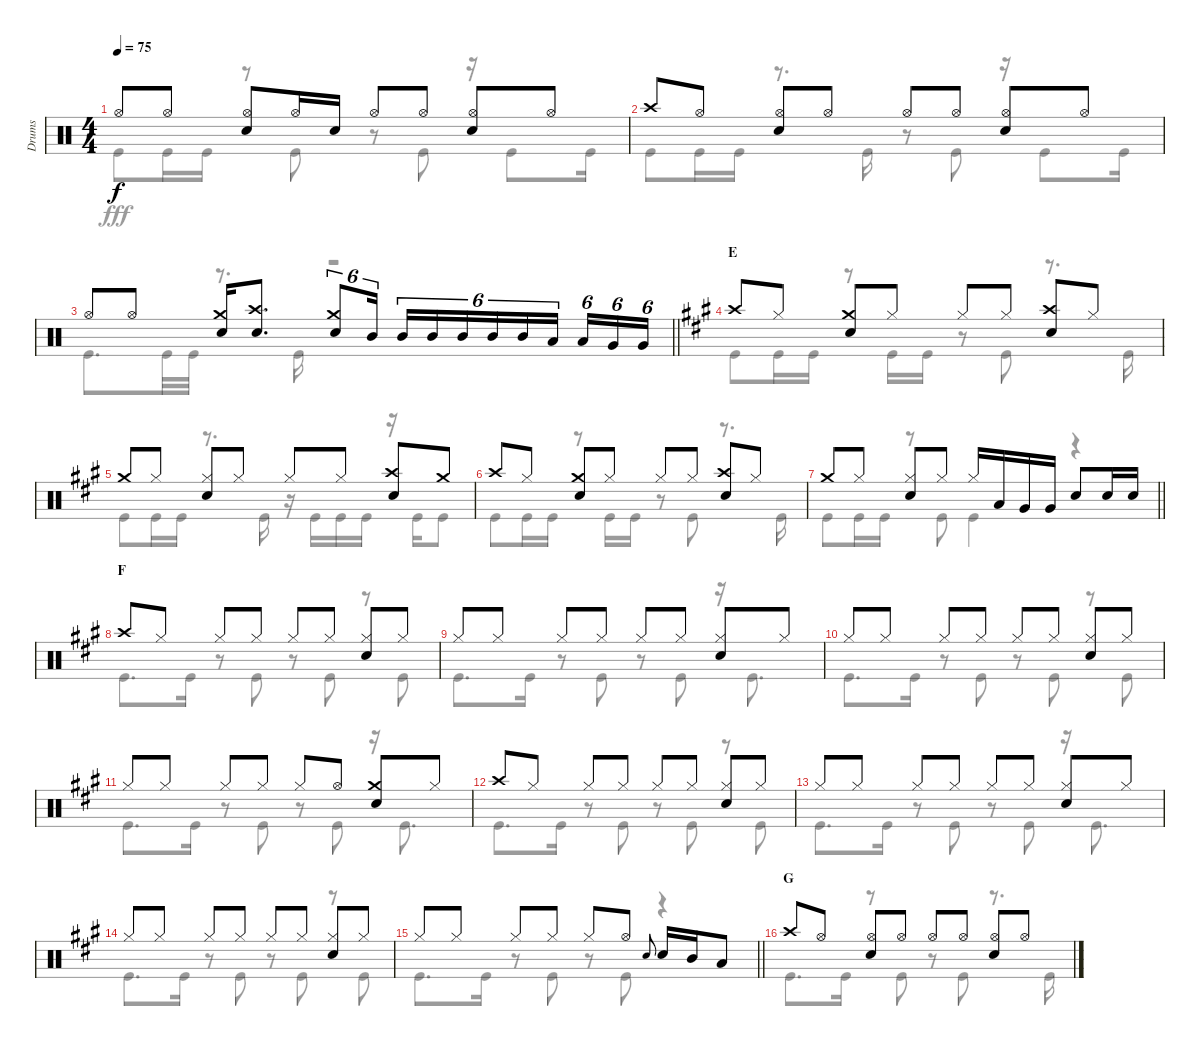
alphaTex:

\track ("Drums" "Drums") {instrument percussion}
\staff {score}
\articulation defaults
\voice
\ts (4 4)
\tempo 75
\clef neutral
\ks c "Hi-Hat (open)".8{dy f} "Hi-Hat (open)".8
("Hi-Hat (open)" "Snare (hit) 2").8 "Hi-Hat (open)".16 "Snare (hit) 2".16 "Hi-Hat (open)".8 "Hi-Hat (open)".8 ("Hi-Hat (open)" "Snare (hit) 2").8 "Hi-Hat (open)".8 |
"Crash high (hit)".8 "Hi-Hat (open)".8 ("Hi-Hat (open)" "Snare (hit) 2").8 "Hi-Hat (open)".8 "Hi-Hat (open)".8 "Hi-Hat (open)".8 ("Hi-Hat (open)" "Snare (hit) 2").8 "Hi-Hat (open)".8 |
\barLineRight lightlight "Hi-Hat (open)".8 "Hi-Hat (open)".8
("Crash medium (hit)" "Snare (hit) 2").16 ("Crash high (hit)" "Snare (hit) 2").8{d} ("Crash medium (hit)" "Snare (hit) 2").8{tu (6 4)} "Mid Tom (hit)".16{tu (6 4) beam splitsecondary} "Mid Tom (hit)".16{tu (6 4)} "Mid Tom (hit)".16{tu (6 4)} "Mid Tom (hit)".16{tu (6 4)} "Mid Tom (hit)".16{tu (6 4)} "Mid Tom (hit)".16{tu (6 4)} "Low Tom (hit)".16{tu (6 4) beam splitsecondary} "Low Tom (hit)".16{tu (6 4)} "Very Low Tom (hit)".16{tu (6 4)} "Very Low Tom (hit)".16{tu (6 4)} |
\section ("" "E")
\ks a "Crash high (hit)".8 "Hi-Hat (closed)".8
("Crash medium (hit)" "Snare (hit) 2").8 "Hi-Hat (closed)".8 "Hi-Hat (closed)".8 "Hi-Hat (closed)".8 ("Crash high (hit)" "Snare (hit) 2").8 "Hi-Hat (closed)".8 |
"Crash medium (hit)".8 "Hi-Hat (closed)".8 ("Hi-Hat (closed)" "Snare (hit) 2").8 "Hi-Hat (closed)".8 "Hi-Hat (closed)".8 "Hi-Hat (closed)".8 ("Crash high (hit)" "Snare (hit) 2").8 "Crash medium (hit)".8 |
"Crash high (hit)".8 "Hi-Hat (closed)".8 ("Crash medium (hit)" "Snare (hit) 2").8 "Hi-Hat (closed)".8 "Hi-Hat (closed)".8 "Hi-Hat (closed)".8 ("Crash high (hit)" "Snare (hit) 2").8 "Hi-Hat (closed)".8 |
\barLineRight lightlight "Crash medium (hit)".8 "Hi-Hat (closed)".8
("Hi-Hat (closed)" "Snare (hit) 2").8 "Hi-Hat (closed)".8 "Hi-Hat (closed)".16 "Low Tom (hit)".16 "Very Low Tom (hit)".16 "Very Low Tom (hit)".16 "Snare (hit) 2".8 "Snare (hit) 2".16 "Snare (hit) 2".16 |
\section ("" "F")
"Crash high (hit)".8 "Hi-Hat (closed)".8 "Hi-Hat (closed)".8 "Hi-Hat (closed)".8 "Hi-Hat (closed)".8 "Hi-Hat (closed)".8 ("Hi-Hat (closed)" "Snare (hit) 2").8 "Hi-Hat (closed)".8 |
"Hi-Hat (closed)".8 "Hi-Hat (closed)".8 "Hi-Hat (closed)".8 "Hi-Hat (closed)".8 "Hi-Hat (closed)".8 "Hi-Hat (closed)".8 ("Hi-Hat (closed)" "Snare (hit) 2").8 "Hi-Hat (closed)".8 |
"Hi-Hat (closed)".8 "Hi-Hat (closed)".8 "Hi-Hat (closed)".8 "Hi-Hat (closed)".8 "Hi-Hat (closed)".8 "Hi-Hat (closed)".8 ("Hi-Hat (closed)" "Snare (hit) 2").8 "Hi-Hat (closed)".8 |
"Hi-Hat (closed)".8 "Hi-Hat (closed)".8 "Hi-Hat (closed)".8 "Hi-Hat (closed)".8 "Hi-Hat (closed)".8 "Hi-Hat (open)".8 ("Crash medium (hit)" "Snare (hit) 2").8 "Hi-Hat (closed)".8 |
"Crash high (hit)".8 "Hi-Hat (closed)".8 "Hi-Hat (closed)".8 "Hi-Hat (closed)".8 "Hi-Hat (closed)".8 "Hi-Hat (closed)".8 ("Hi-Hat (closed)" "Snare (hit) 2").8 "Hi-Hat (closed)".8 |
"Hi-Hat (closed)".8 "Hi-Hat (closed)".8 "Hi-Hat (closed)".8 "Hi-Hat (closed)".8 "Hi-Hat (closed)".8 "Hi-Hat (closed)".8 ("Hi-Hat (closed)" "Snare (hit) 2").8 "Hi-Hat (closed)".8 |
"Hi-Hat (closed)".8 "Hi-Hat (closed)".8 "Hi-Hat (closed)".8 "Hi-Hat (closed)".8 "Hi-Hat (closed)".8 "Hi-Hat (closed)".8 ("Hi-Hat (closed)" "Snare (hit) 2").8 "Hi-Hat (closed)".8 |
\barLineRight lightlight "Hi-Hat (closed)".8 "Hi-Hat (closed)".8 "Hi-Hat (closed)".8 "Hi-Hat (closed)".8 "Hi-Hat (closed)".8 "Hi-Hat (open)".8 "Snare (hit) 2".8{gr onbeat} "Snare (hit) 2".16 "Mid Tom (hit)".16 "Low Tom (hit)".8
|
\section ("" "G")
"Crash high (hit)".8 "Hi-Hat (open)".8 ("Hi-Hat (open)" "Snare (hit) 2").8 "Hi-Hat (open)".8 "Hi-Hat (open)".8 "Hi-Hat (open)".8 ("Hi-Hat (open)" "Snare (hit) 2").8 "Hi-Hat (open)".8
\voice
\clef neutral
\ottava regular
\simile none
\ks c "Kick (hit)".8{dy fff} "Kick (hit)".16 "Kick (hit)".16
r.8 "Kick (hit)".8 r.8 "Kick (hit)".8 r.16 "Kick (hit)".8 "Kick (hit)".16 |
"Kick (hit)".8 "Kick (hit)".16 "Kick (hit)".16 r.8{d} "Kick (hit)".16 r.8 "Kick (hit)".8 r.16 "Kick (hit)".8 "Kick (hit)".16 |
\barLineRight lightlight "Kick (hit)".8{d} "Kick (hit)".32 "Kick (hit)".32
r.8{d} "Kick (hit)".16 r.2 |
\ks a "Kick (hit)".8 "Kick (hit)".16 "Kick (hit)".16
r.8 "Kick (hit)".16 "Kick (hit)".16 r.8 "Kick (hit)".8 r.8{d} "Kick (hit)".16 |
"Kick (hit)".8 "Kick (hit)".16 "Kick (hit)".16 r.8{d} "Kick (hit)".16 r.16 "Kick (hit)".16 "Kick (hit)".16 "Kick (hit)".16 r.16 "Kick (hit)".16 "Kick (hit)".8 |
"Kick (hit)".8 "Kick (hit)".16 "Kick (hit)".16 r.8 "Kick (hit)".16 "Kick (hit)".16 r.8 "Kick (hit)".8 r.8{d} "Kick (hit)".16 |
\barLineRight lightlight "Kick (hit)".8 "Kick (hit)".16 "Kick (hit)".16
r.8 "Kick (hit)".8 "Kick (hit)".4 r.4 |
"Kick (hit)".8{d} "Kick (hit)".16 r.8 "Kick (hit)".8 r.8 "Kick (hit)".8 r.8 "Kick (hit)".8 |
"Kick (hit)".8{d} "Kick (hit)".16 r.8 "Kick (hit)".8 r.8 "Kick (hit)".8 r.16 "Kick (hit)".8{d} |
"Kick (hit)".8{d} "Kick (hit)".16 r.8 "Kick (hit)".8 r.8 "Kick (hit)".8 r.8 "Kick (hit)".8 |
"Kick (hit)".8{d} "Kick (hit)".16 r.8 "Kick (hit)".8 r.8 "Kick (hit)".8 r.16 "Kick (hit)".8{d} |
"Kick (hit)".8{d} "Kick (hit)".16 r.8 "Kick (hit)".8 r.8 "Kick (hit)".8 r.8 "Kick (hit)".8 |
"Kick (hit)".8{d} "Kick (hit)".16 r.8 "Kick (hit)".8 r.8 "Kick (hit)".8 r.16 "Kick (hit)".8{d} |
"Kick (hit)".8{d} "Kick (hit)".16 r.8 "Kick (hit)".8 r.8 "Kick (hit)".8 r.8 "Kick (hit)".8 |
\barLineRight lightlight "Kick (hit)".8{d} "Kick (hit)".16
r.8 "Kick (hit)".8 r.8 "Kick (hit)".8 r.4 |
"Kick (hit)".8{d} "Kick (hit)".16 r.8 "Kick (hit)".8 r.8 "Kick (hit)".8 r.8{d} "Kick (hit)".16
